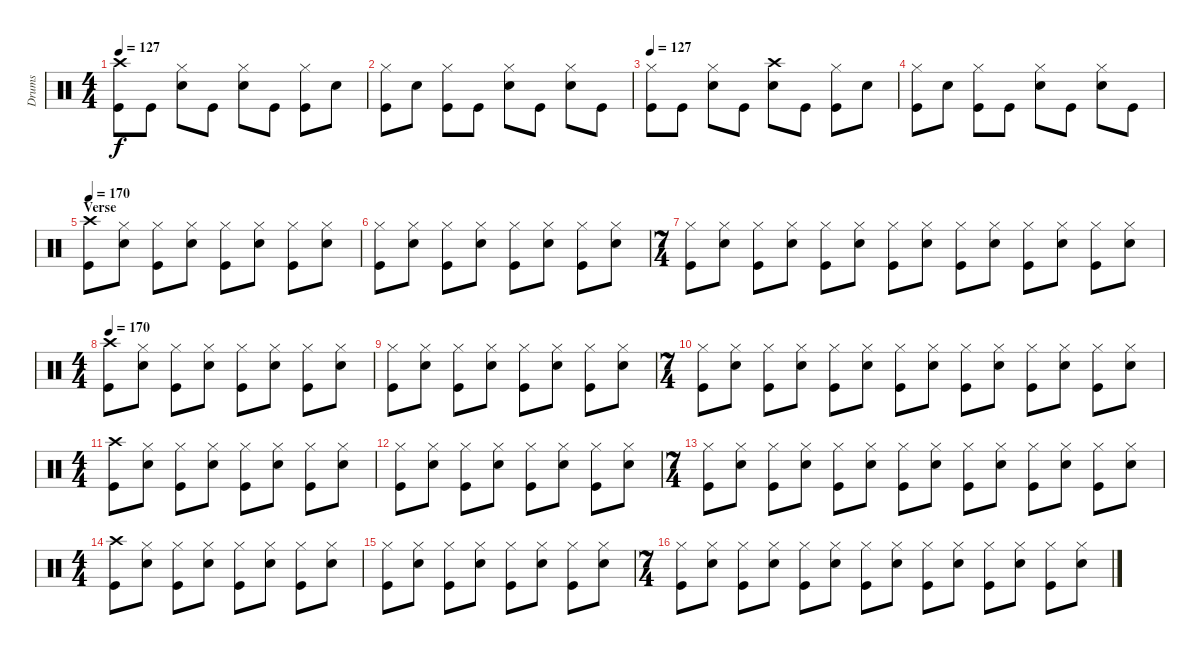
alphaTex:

\track ("Drums" "Drums") {instrument percussion}
\staff {score}
\articulation defaults
\ts (4 4)
\tempo 127
\clef neutral
\ks c
("Crash high (hit)" "Kick (hit)").8{dy f} "Kick (hit)".8 ("Hi-Hat (closed)" "Snare (hit) 2").8 "Kick (hit)".8 ("Hi-Hat (closed)" "Snare (hit) 2").8 "Kick (hit)".8 ("Hi-Hat (closed)" "Kick (hit)").8 "Snare (hit) 2".8 |
("Hi-Hat (closed)" "Kick (hit)").8 "Snare (hit) 2".8 ("Hi-Hat (closed)" "Kick (hit)").8 "Kick (hit)".8 ("Hi-Hat (closed)" "Snare (hit) 2").8 "Kick (hit)".8 ("Hi-Hat (closed)" "Snare (hit) 2").8 "Kick (hit)".8 |
\tempo 127
("Hi-Hat (closed)" "Kick (hit)").8 "Kick (hit)".8 ("Hi-Hat (closed)" "Snare (hit) 2").8 "Kick (hit)".8 ("Crash high (hit)" "Snare (hit) 2").8 "Kick (hit)".8 ("Hi-Hat (closed)" "Kick (hit)").8 "Snare (hit) 2".8 |
("Hi-Hat (closed)" "Kick (hit)").8 "Snare (hit) 2".8 ("Hi-Hat (closed)" "Kick (hit)").8 "Kick (hit)".8 ("Hi-Hat (closed)" "Snare (hit) 2").8 "Kick (hit)".8 ("Hi-Hat (closed)" "Snare (hit) 2").8 "Kick (hit)".8 |
\section ("" "Verse")
\tempo 170
("Crash high (hit)" "Kick (hit)").8 ("Hi-Hat (closed)" "Snare (hit) 2").8 ("Hi-Hat (closed)" "Kick (hit)").8 ("Hi-Hat (closed)" "Snare (hit) 2").8 ("Hi-Hat (closed)" "Kick (hit)").8 ("Hi-Hat (closed)" "Snare (hit) 2").8 ("Hi-Hat (closed)" "Kick (hit)").8 ("Hi-Hat (closed)" "Snare (hit) 2").8 |
("Hi-Hat (closed)" "Kick (hit)").8 ("Hi-Hat (closed)" "Snare (hit) 2").8 ("Hi-Hat (closed)" "Kick (hit)").8 ("Hi-Hat (closed)" "Snare (hit) 2").8 ("Hi-Hat (closed)" "Kick (hit)").8 ("Hi-Hat (closed)" "Snare (hit) 2").8 ("Hi-Hat (closed)" "Kick (hit)").8 ("Hi-Hat (closed)" "Snare (hit) 2").8 |
\ts (7 4)
("Hi-Hat (closed)" "Kick (hit)").8 ("Hi-Hat (closed)" "Snare (hit) 2").8 ("Hi-Hat (closed)" "Kick (hit)").8 ("Hi-Hat (closed)" "Snare (hit) 2").8 ("Hi-Hat (closed)" "Kick (hit)").8 ("Hi-Hat (closed)" "Snare (hit) 2").8 ("Hi-Hat (closed)" "Kick (hit)").8 ("Hi-Hat (closed)" "Snare (hit) 2").8 ("Hi-Hat (closed)" "Kick (hit)").8 ("Hi-Hat (closed)" "Snare (hit) 2").8 ("Hi-Hat (closed)" "Kick (hit)").8 ("Hi-Hat (closed)" "Snare (hit) 2").8 ("Hi-Hat (closed)" "Kick (hit)").8 ("Hi-Hat (closed)" "Snare (hit) 2").8 |
\ts (4 4)
\tempo 170
("Crash high (hit)" "Kick (hit)").8 ("Hi-Hat (closed)" "Snare (hit) 2").8 ("Hi-Hat (closed)" "Kick (hit)").8 ("Hi-Hat (closed)" "Snare (hit) 2").8 ("Hi-Hat (closed)" "Kick (hit)").8 ("Hi-Hat (closed)" "Snare (hit) 2").8 ("Hi-Hat (closed)" "Kick (hit)").8 ("Hi-Hat (closed)" "Snare (hit) 2").8 |
("Hi-Hat (closed)" "Kick (hit)").8 ("Hi-Hat (closed)" "Snare (hit) 2").8 ("Hi-Hat (closed)" "Kick (hit)").8 ("Hi-Hat (closed)" "Snare (hit) 2").8 ("Hi-Hat (closed)" "Kick (hit)").8 ("Hi-Hat (closed)" "Snare (hit) 2").8 ("Hi-Hat (closed)" "Kick (hit)").8 ("Hi-Hat (closed)" "Snare (hit) 2").8 |
\ts (7 4)
("Hi-Hat (closed)" "Kick (hit)").8 ("Hi-Hat (closed)" "Snare (hit) 2").8 ("Hi-Hat (closed)" "Kick (hit)").8 ("Hi-Hat (closed)" "Snare (hit) 2").8 ("Hi-Hat (closed)" "Kick (hit)").8 ("Hi-Hat (closed)" "Snare (hit) 2").8 ("Hi-Hat (closed)" "Kick (hit)").8 ("Hi-Hat (closed)" "Snare (hit) 2").8 ("Hi-Hat (closed)" "Kick (hit)").8 ("Hi-Hat (closed)" "Snare (hit) 2").8 ("Hi-Hat (closed)" "Kick (hit)").8 ("Hi-Hat (closed)" "Snare (hit) 2").8 ("Hi-Hat (closed)" "Kick (hit)").8 ("Hi-Hat (closed)" "Snare (hit) 2").8 |
\ts (4 4)
("Crash high (hit)" "Kick (hit)").8 ("Hi-Hat (closed)" "Snare (hit) 2").8 ("Hi-Hat (closed)" "Kick (hit)").8 ("Hi-Hat (closed)" "Snare (hit) 2").8 ("Hi-Hat (closed)" "Kick (hit)").8 ("Hi-Hat (closed)" "Snare (hit) 2").8 ("Hi-Hat (closed)" "Kick (hit)").8 ("Hi-Hat (closed)" "Snare (hit) 2").8 |
("Hi-Hat (closed)" "Kick (hit)").8 ("Hi-Hat (closed)" "Snare (hit) 2").8 ("Hi-Hat (closed)" "Kick (hit)").8 ("Hi-Hat (closed)" "Snare (hit) 2").8 ("Hi-Hat (closed)" "Kick (hit)").8 ("Hi-Hat (closed)" "Snare (hit) 2").8 ("Hi-Hat (closed)" "Kick (hit)").8 ("Hi-Hat (closed)" "Snare (hit) 2").8 |
\ts (7 4)
("Hi-Hat (closed)" "Kick (hit)").8 ("Hi-Hat (closed)" "Snare (hit) 2").8 ("Hi-Hat (closed)" "Kick (hit)").8 ("Hi-Hat (closed)" "Snare (hit) 2").8 ("Hi-Hat (closed)" "Kick (hit)").8 ("Hi-Hat (closed)" "Snare (hit) 2").8 ("Hi-Hat (closed)" "Kick (hit)").8 ("Hi-Hat (closed)" "Snare (hit) 2").8 ("Hi-Hat (closed)" "Kick (hit)").8 ("Hi-Hat (closed)" "Snare (hit) 2").8 ("Hi-Hat (closed)" "Kick (hit)").8 ("Hi-Hat (closed)" "Snare (hit) 2").8 ("Hi-Hat (closed)" "Kick (hit)").8 ("Hi-Hat (closed)" "Snare (hit) 2").8 |
\ts (4 4)
("Crash high (hit)" "Kick (hit)").8 ("Hi-Hat (closed)" "Snare (hit) 2").8 ("Hi-Hat (closed)" "Kick (hit)").8 ("Hi-Hat (closed)" "Snare (hit) 2").8 ("Hi-Hat (closed)" "Kick (hit)").8 ("Hi-Hat (closed)" "Snare (hit) 2").8 ("Hi-Hat (closed)" "Kick (hit)").8 ("Hi-Hat (closed)" "Snare (hit) 2").8 |
("Hi-Hat (closed)" "Kick (hit)").8 ("Hi-Hat (closed)" "Snare (hit) 2").8 ("Hi-Hat (closed)" "Kick (hit)").8 ("Hi-Hat (closed)" "Snare (hit) 2").8 ("Hi-Hat (closed)" "Kick (hit)").8 ("Hi-Hat (closed)" "Snare (hit) 2").8 ("Hi-Hat (closed)" "Kick (hit)").8 ("Hi-Hat (closed)" "Snare (hit) 2").8 |
\ts (7 4)
("Hi-Hat (closed)" "Kick (hit)").8 ("Hi-Hat (closed)" "Snare (hit) 2").8 ("Hi-Hat (closed)" "Kick (hit)").8 ("Hi-Hat (closed)" "Snare (hit) 2").8 ("Hi-Hat (closed)" "Kick (hit)").8 ("Hi-Hat (closed)" "Snare (hit) 2").8 ("Hi-Hat (closed)" "Kick (hit)").8 ("Hi-Hat (closed)" "Snare (hit) 2").8 ("Hi-Hat (closed)" "Kick (hit)").8 ("Hi-Hat (closed)" "Snare (hit) 2").8 ("Hi-Hat (closed)" "Kick (hit)").8 ("Hi-Hat (closed)" "Snare (hit) 2").8 ("Hi-Hat (closed)" "Kick (hit)").8 ("Hi-Hat (closed)" "Snare (hit) 2").8
